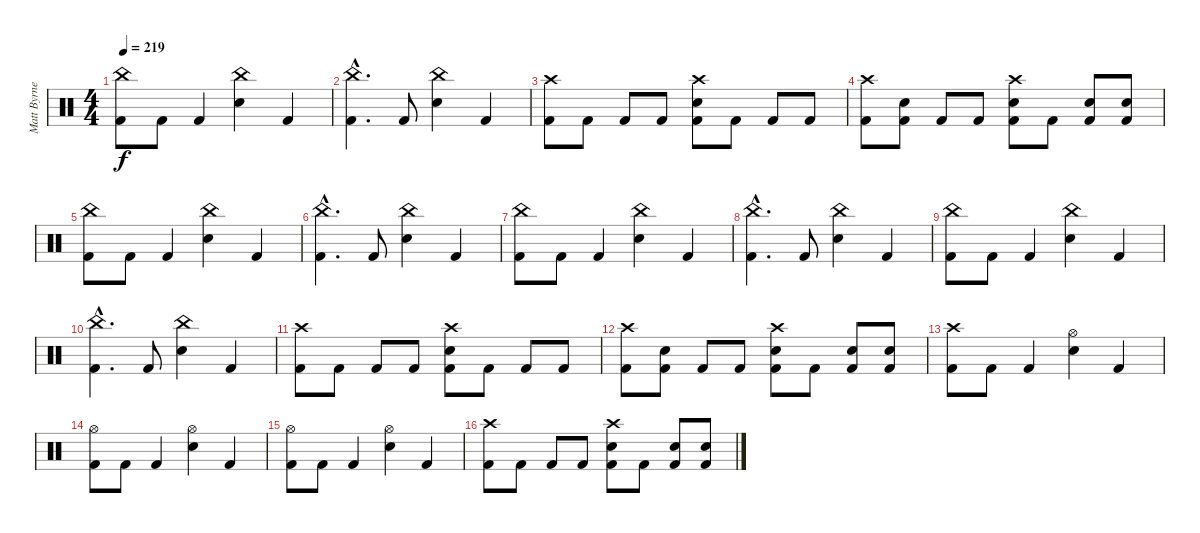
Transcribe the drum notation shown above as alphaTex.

\track ("Matt Byrne (Drums)" "Matt Byrne") {instrument percussion}
\staff {score}
\articulation defaults
\ts (4 4)
\tempo 219
\clef neutral
\ks c
("China (hit)" "Kick (hit) 2").8{dy f} "Kick (hit) 2".8 "Kick (hit) 2".4 ("China (hit)" "Snare (hit) 2").4 "Kick (hit) 2".4 |
("China (hit)"{hac} "Kick (hit) 2"{hac}).4{d} "Kick (hit) 2".8 ("China (hit)" "Snare (hit) 2").4 "Kick (hit) 2".4 |
("Crash high (hit)" "Kick (hit) 2").8 "Kick (hit) 2".8 "Kick (hit) 2".8 "Kick (hit) 2".8 ("Crash high (hit)" "Snare (hit) 2" "Kick (hit) 2").8 "Kick (hit) 2".8 "Kick (hit) 2".8 "Kick (hit) 2".8 |
("Crash high (hit)" "Kick (hit) 2").8 ("Snare (hit) 2" "Kick (hit) 2").8 "Kick (hit) 2".8 "Kick (hit) 2".8 ("Snare (hit) 2" "Crash high (hit)" "Kick (hit) 2").8 "Kick (hit) 2".8 ("Snare (hit) 2" "Kick (hit) 2").8 ("Snare (hit) 2" "Kick (hit) 2").8 |
("China (hit)" "Kick (hit) 2").8 "Kick (hit) 2".8 "Kick (hit) 2".4 ("China (hit)" "Snare (hit) 2").4 "Kick (hit) 2".4 |
("China (hit)"{hac} "Kick (hit) 2"{hac}).4{d} "Kick (hit) 2".8 ("China (hit)" "Snare (hit) 2").4 "Kick (hit) 2".4 |
("China (hit)" "Kick (hit) 2").8 "Kick (hit) 2".8 "Kick (hit) 2".4 ("China (hit)" "Snare (hit) 2").4 "Kick (hit) 2".4 |
("China (hit)"{hac} "Kick (hit) 2"{hac}).4{d} "Kick (hit) 2".8 ("China (hit)" "Snare (hit) 2").4 "Kick (hit) 2".4 |
("China (hit)" "Kick (hit) 2").8 "Kick (hit) 2".8 "Kick (hit) 2".4 ("China (hit)" "Snare (hit) 2").4 "Kick (hit) 2".4 |
("China (hit)"{hac} "Kick (hit) 2"{hac}).4{d} "Kick (hit) 2".8 ("China (hit)" "Snare (hit) 2").4 "Kick (hit) 2".4 |
("Crash high (hit)" "Kick (hit) 2").8 "Kick (hit) 2".8 "Kick (hit) 2".8 "Kick (hit) 2".8 ("Crash high (hit)" "Snare (hit) 2" "Kick (hit) 2").8 "Kick (hit) 2".8 "Kick (hit) 2".8 "Kick (hit) 2".8 |
("Crash high (hit)" "Kick (hit) 2").8 ("Snare (hit) 2" "Kick (hit) 2").8 "Kick (hit) 2".8 "Kick (hit) 2".8 ("Snare (hit) 2" "Crash high (hit)" "Kick (hit) 2").8 "Kick (hit) 2".8 ("Snare (hit) 2" "Kick (hit) 2").8 ("Snare (hit) 2" "Kick (hit) 2").8 |
("Crash high (hit)" "Kick (hit) 2").8 "Kick (hit) 2".8 "Kick (hit) 2".4 ("Hi-Hat (open)" "Snare (hit) 2").4 "Kick (hit) 2".4 |
("Hi-Hat (open)" "Kick (hit) 2").8 "Kick (hit) 2".8 "Kick (hit) 2".4 ("Hi-Hat (open)" "Snare (hit) 2").4 "Kick (hit) 2".4 |
("Hi-Hat (open)" "Kick (hit) 2").8 "Kick (hit) 2".8 "Kick (hit) 2".4 ("Hi-Hat (open)" "Snare (hit) 2").4 "Kick (hit) 2".4 |
("Crash high (hit)" "Kick (hit) 2").8 "Kick (hit) 2".8 "Kick (hit) 2".8 "Kick (hit) 2".8 ("Crash high (hit)" "Snare (hit) 2" "Kick (hit) 2").8 "Kick (hit) 2".8 ("Snare (hit) 2" "Kick (hit) 2").8 ("Snare (hit) 2" "Kick (hit) 2").8
